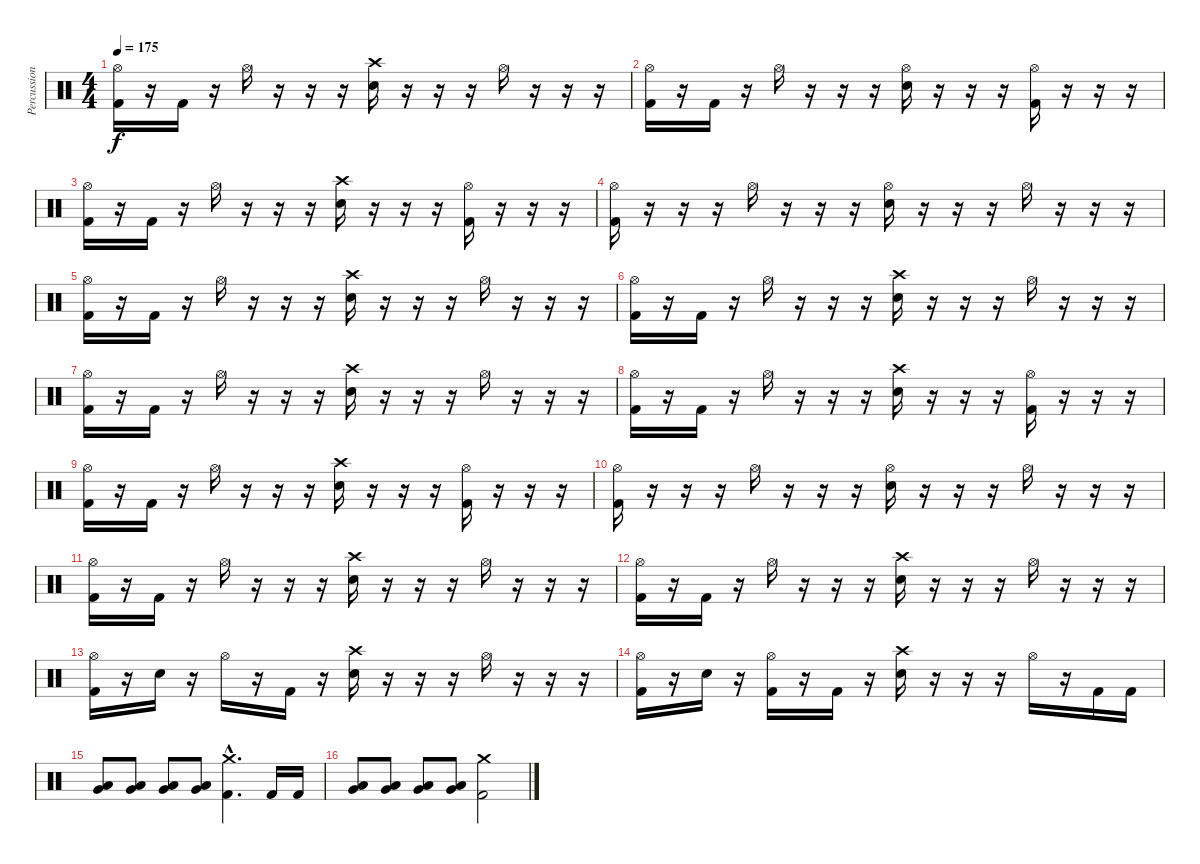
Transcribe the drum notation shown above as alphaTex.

\track ("Percussion" "Percussion") {instrument percussion}
\staff {score}
\articulation defaults
\ts (4 4)
\tempo 175
\clef neutral
\ks c
("Hi-Hat (open)" "Kick (hit) 2").16{dy f} r.16 "Kick (hit) 2".16 r.16 "Hi-Hat (open)".16 r.16 r.16 r.16 ("Crash high (hit)" "Snare (hit) 2").16 r.16 r.16 r.16 "Hi-Hat (open)".16 r.16 r.16 r.16 |
("Hi-Hat (open)" "Kick (hit) 2").16 r.16 "Kick (hit) 2".16 r.16 "Hi-Hat (open)".16 r.16 r.16 r.16 ("Hi-Hat (open)" "Snare (hit) 2").16 r.16 r.16 r.16 ("Hi-Hat (open)" "Kick (hit) 2").16 r.16 r.16 r.16 |
("Hi-Hat (open)" "Kick (hit) 2").16 r.16 "Kick (hit) 2".16 r.16 "Hi-Hat (open)".16 r.16 r.16 r.16 ("Crash high (hit)" "Snare (hit) 2").16 r.16 r.16 r.16 ("Hi-Hat (open)" "Kick (hit) 2").16 r.16 r.16 r.16 |
("Hi-Hat (open)" "Kick (hit) 2").16 r.16 r.16 r.16 "Hi-Hat (open)".16 r.16 r.16 r.16 ("Hi-Hat (open)" "Snare (hit) 2").16 r.16 r.16 r.16 "Hi-Hat (open)".16 r.16 r.16 r.16 |
("Hi-Hat (open)" "Kick (hit) 2").16 r.16 "Kick (hit) 2".16 r.16 "Hi-Hat (open)".16 r.16 r.16 r.16 ("Crash high (hit)" "Snare (hit) 2").16 r.16 r.16 r.16 "Hi-Hat (open)".16 r.16 r.16 r.16 |
("Hi-Hat (open)" "Kick (hit) 2").16 r.16 "Kick (hit) 2".16 r.16 "Hi-Hat (open)".16 r.16 r.16 r.16 ("Crash high (hit)" "Snare (hit) 2").16 r.16 r.16 r.16 "Hi-Hat (open)".16 r.16 r.16 r.16 |
("Hi-Hat (open)" "Kick (hit) 2").16 r.16 "Kick (hit) 2".16 r.16 "Hi-Hat (open)".16 r.16 r.16 r.16 ("Crash high (hit)" "Snare (hit) 2").16 r.16 r.16 r.16 "Hi-Hat (open)".16 r.16 r.16 r.16 |
("Hi-Hat (open)" "Kick (hit) 2").16 r.16 "Kick (hit) 2".16 r.16 "Hi-Hat (open)".16 r.16 r.16 r.16 ("Crash high (hit)" "Snare (hit) 2").16 r.16 r.16 r.16 ("Hi-Hat (open)" "Kick (hit) 2").16 r.16 r.16 r.16 |
("Hi-Hat (open)" "Kick (hit) 2").16 r.16 "Kick (hit) 2".16 r.16 "Hi-Hat (open)".16 r.16 r.16 r.16 ("Crash high (hit)" "Snare (hit) 2").16 r.16 r.16 r.16 ("Hi-Hat (open)" "Kick (hit) 2").16 r.16 r.16 r.16 |
("Hi-Hat (open)" "Kick (hit) 2").16 r.16 r.16 r.16 "Hi-Hat (open)".16 r.16 r.16 r.16 ("Hi-Hat (open)" "Snare (hit) 2").16 r.16 r.16 r.16 "Hi-Hat (open)".16 r.16 r.16 r.16 |
("Hi-Hat (open)" "Kick (hit) 2").16 r.16 "Kick (hit) 2".16 r.16 "Hi-Hat (open)".16 r.16 r.16 r.16 ("Crash high (hit)" "Snare (hit) 2").16 r.16 r.16 r.16 "Hi-Hat (open)".16 r.16 r.16 r.16 |
("Hi-Hat (open)" "Kick (hit) 2").16 r.16 "Kick (hit) 2".16 r.16 "Hi-Hat (open)".16 r.16 r.16 r.16 ("Crash high (hit)" "Snare (hit) 2").16 r.16 r.16 r.16 "Hi-Hat (open)".16 r.16 r.16 r.16 |
("Hi-Hat (open)" "Kick (hit) 2").16 r.16 "Snare (hit) 2".16 r.16 "Hi-Hat (open)".16 r.16 "Kick (hit) 2".16 r.16 ("Crash high (hit)" "Snare (hit) 2").16 r.16 r.16 r.16 "Hi-Hat (open)".16 r.16 r.16 r.16 |
("Hi-Hat (open)" "Kick (hit) 2").16 r.16 "Snare (hit) 2".16 r.16 ("Hi-Hat (open)" "Kick (hit) 2").16 r.16 "Kick (hit) 2".16 r.16 ("Crash high (hit)" "Snare (hit) 2").16 r.16 r.16 r.16 "Hi-Hat (open)".16 r.16 "Kick (hit) 2".16 "Kick (hit) 2".16 |
("Low Tom (hit)" "Very Low Tom (hit)").8{bd 120} ("Low Tom (hit)" "Very Low Tom (hit)").8{bd 120} ("Low Tom (hit)" "Very Low Tom (hit)").8{bd 120} ("Low Tom (hit)" "Very Low Tom (hit)").8{bd 120} ("Crash medium (hit)"{hac} "Kick (hit) 2"{hac}).4{d} "Kick (hit) 2".16 "Kick (hit) 2".16 |
("Very Low Tom (hit)" "Low Floor Tom (hit)").8{bd 120} ("Very Low Tom (hit)" "Low Floor Tom (hit)").8{bd 120} ("Very Low Tom (hit)" "Low Floor Tom (hit)").8{bd 120} ("Very Low Tom (hit)" "Low Floor Tom (hit)").8{bd 120} ("Crash medium (hit)" "Kick (hit) 2").2
